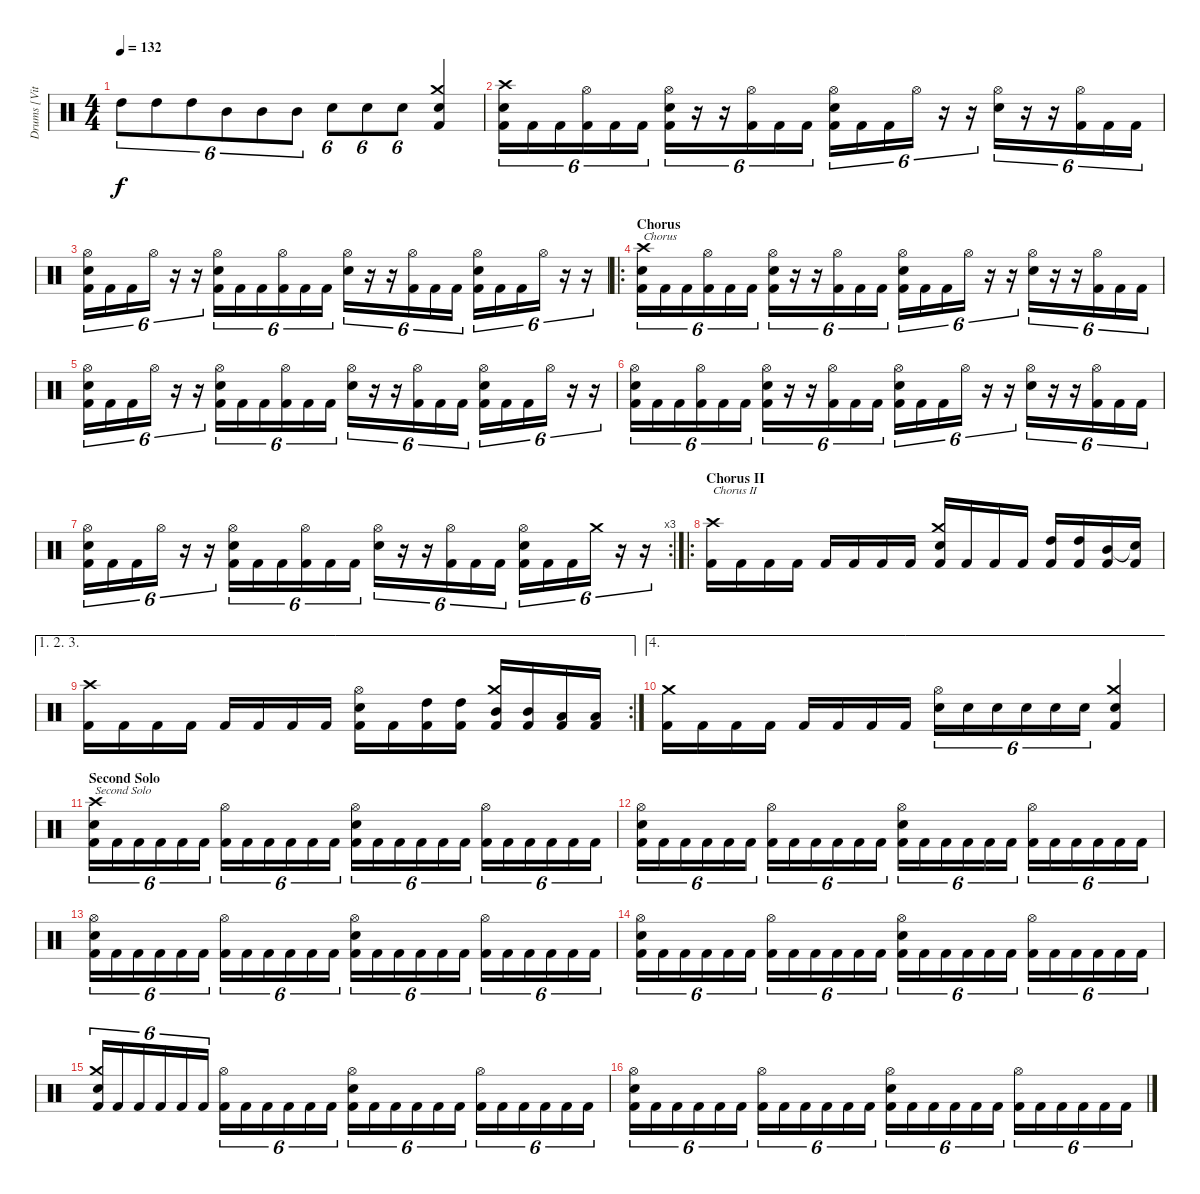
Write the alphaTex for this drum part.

\track ("Drums [Vitek]" "Drums [Vit") {instrument percussion}
\staff {score}
\articulation defaults
\ts (4 4)
\tempo 132
\clef neutral
\ks c "High Tom (hit)".8{tu (6 4) dy f} "High Tom (hit)".8{tu (6 4)} "High Tom (hit)".8{tu (6 4)} "Mid Tom (hit)".8{tu (6 4)} "Mid Tom (hit)".8{tu (6 4)} "Mid Tom (hit)".8{tu (6 4)} "Electric Snare (hit)".8{tu (6 4)} "Electric Snare (hit)".8{tu (6 4)} "Electric Snare (hit)".8{tu (6 4)}
("Crash medium (hit)" "Electric Snare (hit)" "Kick (hit) 2").4 |
("Crash high (hit)" "Electric Snare (hit)" "Kick (hit) 2").16{tu (6 4)} "Kick (hit) 2".16{tu (6 4)} "Kick (hit) 2".16{tu (6 4)} ("Hi-Hat (open)" "Kick (hit) 2").16{tu (6 4)} "Kick (hit) 2".16{tu (6 4)} "Kick (hit) 2".16{tu (6 4)} ("Hi-Hat (open)" "Electric Snare (hit)" "Kick (hit) 2").16{tu (6 4)} r.16{tu (6 4)} r.16{tu (6 4)} ("Hi-Hat (open)" "Kick (hit) 2").16{tu (6 4)} "Kick (hit) 2".16{tu (6 4)} "Kick (hit) 2".16{tu (6 4)} ("Hi-Hat (open)" "Electric Snare (hit)" "Kick (hit) 2").16{tu (6 4)} "Kick (hit) 2".16{tu (6 4)} "Kick (hit) 2".16{tu (6 4)} "Hi-Hat (open)".16{tu (6 4)} r.16{tu (6 4)} r.16{tu (6 4)} ("Hi-Hat (open)" "Electric Snare (hit)").16{tu (6 4)} r.16{tu (6 4)} r.16{tu (6 4)} ("Hi-Hat (open)" "Kick (hit) 2").16{tu (6 4)} "Kick (hit) 2".16{tu (6 4)} "Kick (hit) 2".16{tu (6 4)} |
("Hi-Hat (open)" "Electric Snare (hit)" "Kick (hit) 2").16{tu (6 4)} "Kick (hit) 2".16{tu (6 4)} "Kick (hit) 2".16{tu (6 4)} "Hi-Hat (open)".16{tu (6 4)} r.16{tu (6 4)} r.16{tu (6 4)} ("Hi-Hat (open)" "Electric Snare (hit)" "Kick (hit) 2").16{tu (6 4)} "Kick (hit) 2".16{tu (6 4)} "Kick (hit) 2".16{tu (6 4)} ("Hi-Hat (open)" "Kick (hit) 2").16{tu (6 4)} "Kick (hit) 2".16{tu (6 4)} "Kick (hit) 2".16{tu (6 4)} ("Hi-Hat (open)" "Electric Snare (hit)").16{tu (6 4)} r.16{tu (6 4)} r.16{tu (6 4)} ("Hi-Hat (open)" "Kick (hit) 2").16{tu (6 4)} "Kick (hit) 2".16{tu (6 4)} "Kick (hit) 2".16{tu (6 4)} ("Hi-Hat (open)" "Electric Snare (hit)" "Kick (hit) 2").16{tu (6 4)} "Kick (hit) 2".16{tu (6 4)} "Kick (hit) 2".16{tu (6 4)} "Hi-Hat (open)".16{tu (6 4)} r.16{tu (6 4)} r.16{tu (6 4)} |
\ro
\section ("" "Chorus")
("Crash high (hit)" "Electric Snare (hit)" "Kick (hit) 2").16{tu (6 4) txt "Chorus"} "Kick (hit) 2".16{tu (6 4)} "Kick (hit) 2".16{tu (6 4)} ("Hi-Hat (open)" "Kick (hit) 2").16{tu (6 4)} "Kick (hit) 2".16{tu (6 4)} "Kick (hit) 2".16{tu (6 4)} ("Hi-Hat (open)" "Electric Snare (hit)" "Kick (hit) 2").16{tu (6 4)} r.16{tu (6 4)} r.16{tu (6 4)} ("Hi-Hat (open)" "Kick (hit) 2").16{tu (6 4)} "Kick (hit) 2".16{tu (6 4)} "Kick (hit) 2".16{tu (6 4)} ("Hi-Hat (open)" "Electric Snare (hit)" "Kick (hit) 2").16{tu (6 4)} "Kick (hit) 2".16{tu (6 4)} "Kick (hit) 2".16{tu (6 4)} "Hi-Hat (open)".16{tu (6 4)} r.16{tu (6 4)} r.16{tu (6 4)} ("Hi-Hat (open)" "Electric Snare (hit)").16{tu (6 4)} r.16{tu (6 4)} r.16{tu (6 4)} ("Hi-Hat (open)" "Kick (hit) 2").16{tu (6 4)} "Kick (hit) 2".16{tu (6 4)} "Kick (hit) 2".16{tu (6 4)} |
("Hi-Hat (open)" "Electric Snare (hit)" "Kick (hit) 2").16{tu (6 4)} "Kick (hit) 2".16{tu (6 4)} "Kick (hit) 2".16{tu (6 4)} "Hi-Hat (open)".16{tu (6 4)} r.16{tu (6 4)} r.16{tu (6 4)} ("Hi-Hat (open)" "Electric Snare (hit)" "Kick (hit) 2").16{tu (6 4)} "Kick (hit) 2".16{tu (6 4)} "Kick (hit) 2".16{tu (6 4)} ("Hi-Hat (open)" "Kick (hit) 2").16{tu (6 4)} "Kick (hit) 2".16{tu (6 4)} "Kick (hit) 2".16{tu (6 4)} ("Hi-Hat (open)" "Electric Snare (hit)").16{tu (6 4)} r.16{tu (6 4)} r.16{tu (6 4)} ("Hi-Hat (open)" "Kick (hit) 2").16{tu (6 4)} "Kick (hit) 2".16{tu (6 4)} "Kick (hit) 2".16{tu (6 4)} ("Hi-Hat (open)" "Electric Snare (hit)" "Kick (hit) 2").16{tu (6 4)} "Kick (hit) 2".16{tu (6 4)} "Kick (hit) 2".16{tu (6 4)} "Hi-Hat (open)".16{tu (6 4)} r.16{tu (6 4)} r.16{tu (6 4)} |
("Hi-Hat (open)" "Electric Snare (hit)" "Kick (hit) 2").16{tu (6 4)} "Kick (hit) 2".16{tu (6 4)} "Kick (hit) 2".16{tu (6 4)} ("Hi-Hat (open)" "Kick (hit) 2").16{tu (6 4)} "Kick (hit) 2".16{tu (6 4)} "Kick (hit) 2".16{tu (6 4)} ("Hi-Hat (open)" "Electric Snare (hit)" "Kick (hit) 2").16{tu (6 4)} r.16{tu (6 4)} r.16{tu (6 4)} ("Hi-Hat (open)" "Kick (hit) 2").16{tu (6 4)} "Kick (hit) 2".16{tu (6 4)} "Kick (hit) 2".16{tu (6 4)} ("Hi-Hat (open)" "Electric Snare (hit)" "Kick (hit) 2").16{tu (6 4)} "Kick (hit) 2".16{tu (6 4)} "Kick (hit) 2".16{tu (6 4)} "Hi-Hat (open)".16{tu (6 4)} r.16{tu (6 4)} r.16{tu (6 4)} ("Hi-Hat (open)" "Electric Snare (hit)").16{tu (6 4)} r.16{tu (6 4)} r.16{tu (6 4)} ("Hi-Hat (open)" "Kick (hit) 2").16{tu (6 4)} "Kick (hit) 2".16{tu (6 4)} "Kick (hit) 2".16{tu (6 4)} |
\rc 3
("Hi-Hat (open)" "Electric Snare (hit)" "Kick (hit) 2").16{tu (6 4)} "Kick (hit) 2".16{tu (6 4)} "Kick (hit) 2".16{tu (6 4)} "Hi-Hat (open)".16{tu (6 4)} r.16{tu (6 4)} r.16{tu (6 4)} ("Hi-Hat (open)" "Electric Snare (hit)" "Kick (hit) 2").16{tu (6 4)} "Kick (hit) 2".16{tu (6 4)} "Kick (hit) 2".16{tu (6 4)} ("Hi-Hat (open)" "Kick (hit) 2").16{tu (6 4)} "Kick (hit) 2".16{tu (6 4)} "Kick (hit) 2".16{tu (6 4)} ("Hi-Hat (open)" "Electric Snare (hit)").16{tu (6 4)} r.16{tu (6 4)} r.16{tu (6 4)} ("Hi-Hat (open)" "Kick (hit) 2").16{tu (6 4)} "Kick (hit) 2".16{tu (6 4)} "Kick (hit) 2".16{tu (6 4)} ("Hi-Hat (open)" "Electric Snare (hit)" "Kick (hit) 2").16{tu (6 4)} "Kick (hit) 2".16{tu (6 4)} "Kick (hit) 2".16{tu (6 4)} "Crash medium (hit)".16{tu (6 4)} r.16{tu (6 4)} r.16{tu (6 4)} |
\ro
\section ("" "Chorus II")
("Crash high (hit)" "Kick (hit) 2").16{txt "Chorus II"} "Kick (hit) 2".16 "Kick (hit) 2".16 "Kick (hit) 2".16 "Kick (hit) 2".16 "Kick (hit) 2".16 "Kick (hit) 2".16 "Kick (hit) 2".16 ("Crash medium (hit)" "Electric Snare (hit)" "Kick (hit) 2").16 "Kick (hit) 2".16 "Kick (hit) 2".16 "Kick (hit) 2".16 ("High Tom (hit)" "Kick (hit) 2").16 ("High Tom (hit)" "Kick (hit) 2").16 ("Mid Tom (hit)" "Kick (hit) 2").16 ("Snare (hit)"{t} "Kick (hit) 2").16 |
\ae (1 2 3)
\rc 2
("Crash high (hit)" "Kick (hit) 2").16 "Kick (hit) 2".16 "Kick (hit) 2".16 "Kick (hit) 2".16 "Kick (hit) 2".16 "Kick (hit) 2".16 "Kick (hit) 2".16 "Kick (hit) 2".16 ("Hi-Hat (open)" "Electric Snare (hit)" "Kick (hit) 2").16 "Kick (hit) 2".16 ("High Tom (hit)" "Kick (hit) 2").16 ("High Tom (hit)" "Kick (hit) 2").16 ("Crash medium (hit)" "Mid Tom (hit)" "Kick (hit) 2").16 ("Mid Tom (hit)" "Kick (hit) 2").16 ("Low Tom (hit)" "Kick (hit) 2").16 ("Low Tom (hit)" "Kick (hit) 2").16 |
\ae 4
("Crash medium (hit)" "Kick (hit) 2").16 "Kick (hit) 2".16 "Kick (hit) 2".16 "Kick (hit) 2".16 "Kick (hit) 2".16 "Kick (hit) 2".16 "Kick (hit) 2".16 "Kick (hit) 2".16 ("Hi-Hat (open)" "Electric Snare (hit)").16{tu (6 4)} "Electric Snare (hit)".16{tu (6 4)} "Electric Snare (hit)".16{tu (6 4)} "Electric Snare (hit)".16{tu (6 4)} "Electric Snare (hit)".16{tu (6 4)} "Electric Snare (hit)".16{tu (6 4)} ("Crash medium (hit)" "Electric Snare (hit)" "Kick (hit) 2").4 |
\section ("" "Second Solo ")
("Crash high (hit)" "Electric Snare (hit)" "Kick (hit) 2").16{tu (6 4) txt "Second Solo "} "Kick (hit) 2".16{tu (6 4)} "Kick (hit) 2".16{tu (6 4)} "Kick (hit) 2".16{tu (6 4)} "Kick (hit) 2".16{tu (6 4)} "Kick (hit) 2".16{tu (6 4)} ("Hi-Hat (open)" "Kick (hit) 2").16{tu (6 4)} "Kick (hit) 2".16{tu (6 4)} "Kick (hit) 2".16{tu (6 4)} "Kick (hit) 2".16{tu (6 4)} "Kick (hit) 2".16{tu (6 4)} "Kick (hit) 2".16{tu (6 4)} ("Hi-Hat (open)" "Electric Snare (hit)" "Kick (hit) 2").16{tu (6 4)} "Kick (hit) 2".16{tu (6 4)} "Kick (hit) 2".16{tu (6 4)} "Kick (hit) 2".16{tu (6 4)} "Kick (hit) 2".16{tu (6 4)} "Kick (hit) 2".16{tu (6 4)} ("Hi-Hat (open)" "Kick (hit) 2").16{tu (6 4)} "Kick (hit) 2".16{tu (6 4)} "Kick (hit) 2".16{tu (6 4)} "Kick (hit) 2".16{tu (6 4)} "Kick (hit) 2".16{tu (6 4)} "Kick (hit) 2".16{tu (6 4)} |
("Hi-Hat (open)" "Electric Snare (hit)" "Kick (hit) 2").16{tu (6 4)} "Kick (hit) 2".16{tu (6 4)} "Kick (hit) 2".16{tu (6 4)} "Kick (hit) 2".16{tu (6 4)} "Kick (hit) 2".16{tu (6 4)} "Kick (hit) 2".16{tu (6 4)} ("Hi-Hat (open)" "Kick (hit) 2").16{tu (6 4)} "Kick (hit) 2".16{tu (6 4)} "Kick (hit) 2".16{tu (6 4)} "Kick (hit) 2".16{tu (6 4)} "Kick (hit) 2".16{tu (6 4)} "Kick (hit) 2".16{tu (6 4)} ("Hi-Hat (open)" "Electric Snare (hit)" "Kick (hit) 2").16{tu (6 4)} "Kick (hit) 2".16{tu (6 4)} "Kick (hit) 2".16{tu (6 4)} "Kick (hit) 2".16{tu (6 4)} "Kick (hit) 2".16{tu (6 4)} "Kick (hit) 2".16{tu (6 4)} ("Hi-Hat (open)" "Kick (hit) 2").16{tu (6 4)} "Kick (hit) 2".16{tu (6 4)} "Kick (hit) 2".16{tu (6 4)} "Kick (hit) 2".16{tu (6 4)} "Kick (hit) 2".16{tu (6 4)} "Kick (hit) 2".16{tu (6 4)} |
("Hi-Hat (open)" "Electric Snare (hit)" "Kick (hit) 2").16{tu (6 4)} "Kick (hit) 2".16{tu (6 4)} "Kick (hit) 2".16{tu (6 4)} "Kick (hit) 2".16{tu (6 4)} "Kick (hit) 2".16{tu (6 4)} "Kick (hit) 2".16{tu (6 4)} ("Hi-Hat (open)" "Kick (hit) 2").16{tu (6 4)} "Kick (hit) 2".16{tu (6 4)} "Kick (hit) 2".16{tu (6 4)} "Kick (hit) 2".16{tu (6 4)} "Kick (hit) 2".16{tu (6 4)} "Kick (hit) 2".16{tu (6 4)} ("Hi-Hat (open)" "Electric Snare (hit)" "Kick (hit) 2").16{tu (6 4)} "Kick (hit) 2".16{tu (6 4)} "Kick (hit) 2".16{tu (6 4)} "Kick (hit) 2".16{tu (6 4)} "Kick (hit) 2".16{tu (6 4)} "Kick (hit) 2".16{tu (6 4)} ("Hi-Hat (open)" "Kick (hit) 2").16{tu (6 4)} "Kick (hit) 2".16{tu (6 4)} "Kick (hit) 2".16{tu (6 4)} "Kick (hit) 2".16{tu (6 4)} "Kick (hit) 2".16{tu (6 4)} "Kick (hit) 2".16{tu (6 4)} |
("Hi-Hat (open)" "Electric Snare (hit)" "Kick (hit) 2").16{tu (6 4)} "Kick (hit) 2".16{tu (6 4)} "Kick (hit) 2".16{tu (6 4)} "Kick (hit) 2".16{tu (6 4)} "Kick (hit) 2".16{tu (6 4)} "Kick (hit) 2".16{tu (6 4)} ("Hi-Hat (open)" "Kick (hit) 2").16{tu (6 4)} "Kick (hit) 2".16{tu (6 4)} "Kick (hit) 2".16{tu (6 4)} "Kick (hit) 2".16{tu (6 4)} "Kick (hit) 2".16{tu (6 4)} "Kick (hit) 2".16{tu (6 4)} ("Hi-Hat (open)" "Electric Snare (hit)" "Kick (hit) 2").16{tu (6 4)} "Kick (hit) 2".16{tu (6 4)} "Kick (hit) 2".16{tu (6 4)} "Kick (hit) 2".16{tu (6 4)} "Kick (hit) 2".16{tu (6 4)} "Kick (hit) 2".16{tu (6 4)} ("Hi-Hat (open)" "Kick (hit) 2").16{tu (6 4)} "Kick (hit) 2".16{tu (6 4)} "Kick (hit) 2".16{tu (6 4)} "Kick (hit) 2".16{tu (6 4)} "Kick (hit) 2".16{tu (6 4)} "Kick (hit) 2".16{tu (6 4)} |
("Crash medium (hit)" "Electric Snare (hit)" "Kick (hit) 2").16{tu (6 4)} "Kick (hit) 2".16{tu (6 4)} "Kick (hit) 2".16{tu (6 4)} "Kick (hit) 2".16{tu (6 4)} "Kick (hit) 2".16{tu (6 4)} "Kick (hit) 2".16{tu (6 4)} ("Hi-Hat (open)" "Kick (hit) 2").16{tu (6 4)} "Kick (hit) 2".16{tu (6 4)} "Kick (hit) 2".16{tu (6 4)} "Kick (hit) 2".16{tu (6 4)} "Kick (hit) 2".16{tu (6 4)} "Kick (hit) 2".16{tu (6 4)} ("Hi-Hat (open)" "Electric Snare (hit)" "Kick (hit) 2").16{tu (6 4)} "Kick (hit) 2".16{tu (6 4)} "Kick (hit) 2".16{tu (6 4)} "Kick (hit) 2".16{tu (6 4)} "Kick (hit) 2".16{tu (6 4)} "Kick (hit) 2".16{tu (6 4)} ("Hi-Hat (open)" "Kick (hit) 2").16{tu (6 4)} "Kick (hit) 2".16{tu (6 4)} "Kick (hit) 2".16{tu (6 4)} "Kick (hit) 2".16{tu (6 4)} "Kick (hit) 2".16{tu (6 4)} "Kick (hit) 2".16{tu (6 4)} |
("Hi-Hat (open)" "Electric Snare (hit)" "Kick (hit) 2").16{tu (6 4)} "Kick (hit) 2".16{tu (6 4)} "Kick (hit) 2".16{tu (6 4)} "Kick (hit) 2".16{tu (6 4)} "Kick (hit) 2".16{tu (6 4)} "Kick (hit) 2".16{tu (6 4)} ("Hi-Hat (open)" "Kick (hit) 2").16{tu (6 4)} "Kick (hit) 2".16{tu (6 4)} "Kick (hit) 2".16{tu (6 4)} "Kick (hit) 2".16{tu (6 4)} "Kick (hit) 2".16{tu (6 4)} "Kick (hit) 2".16{tu (6 4)} ("Hi-Hat (open)" "Electric Snare (hit)" "Kick (hit) 2").16{tu (6 4)} "Kick (hit) 2".16{tu (6 4)} "Kick (hit) 2".16{tu (6 4)} "Kick (hit) 2".16{tu (6 4)} "Kick (hit) 2".16{tu (6 4)} "Kick (hit) 2".16{tu (6 4)} ("Hi-Hat (open)" "Kick (hit) 2").16{tu (6 4)} "Kick (hit) 2".16{tu (6 4)} "Kick (hit) 2".16{tu (6 4)} "Kick (hit) 2".16{tu (6 4)} "Kick (hit) 2".16{tu (6 4)} "Kick (hit) 2".16{tu (6 4)}
